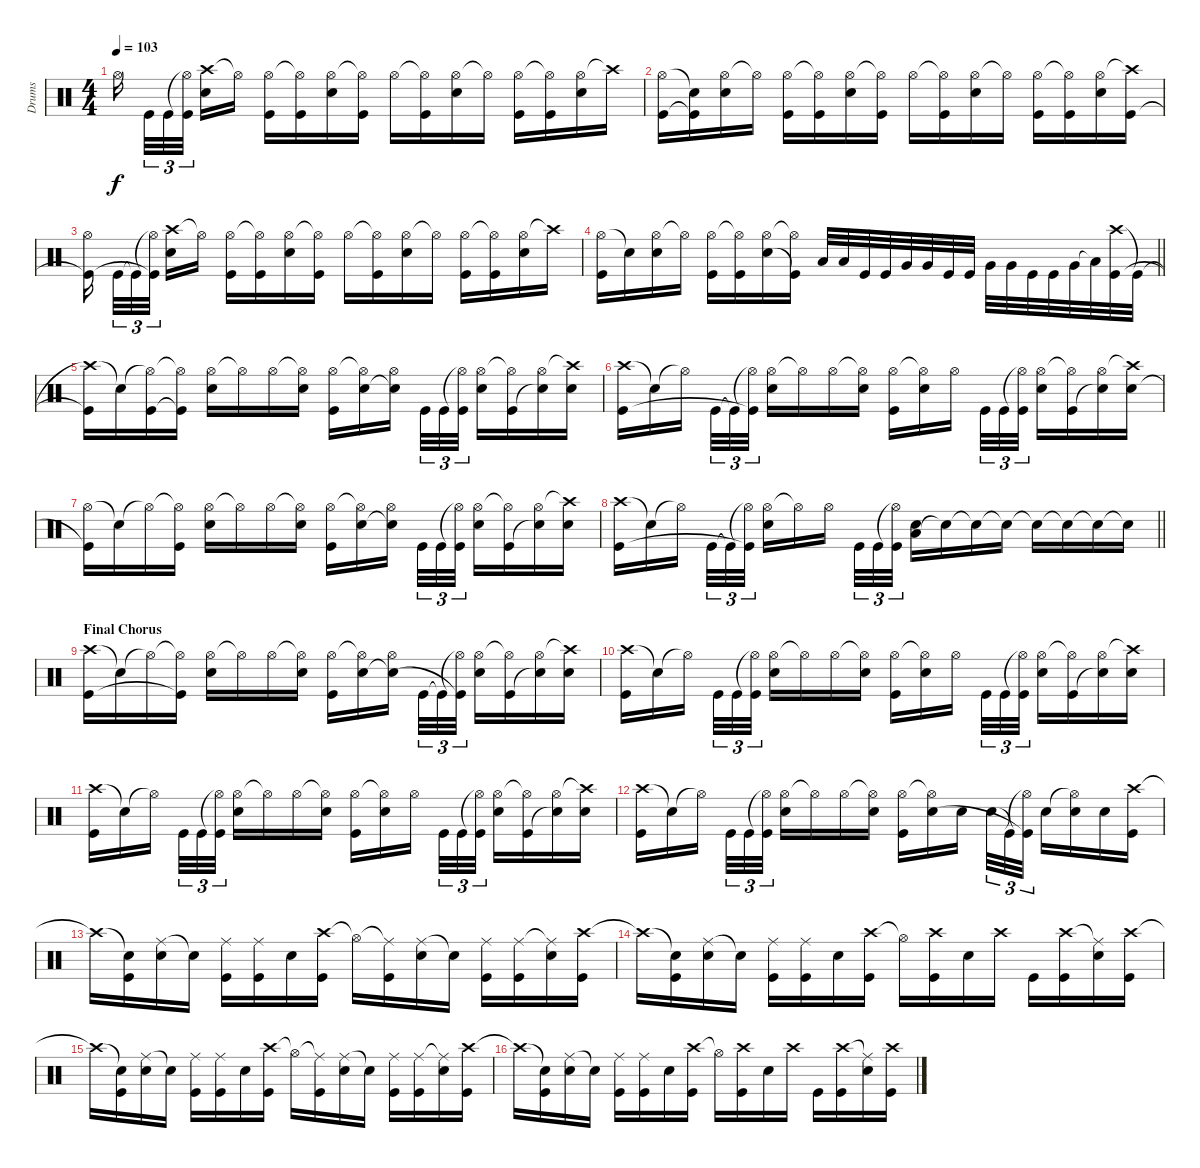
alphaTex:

\track ("Drums" "Drums") {instrument percussion}
\staff {score}
\articulation defaults
\ts (4 4)
\tempo 103
\clef neutral
\ks c "Hi-Hat (open)".16{dy f} "Kick (hit)".32{tu (3 2)} "Kick (hit)".32{tu (3 2)}
("Hi-Hat (open)"{t} "Kick (hit)").32{tu (3 2)} ("Crash high (hit)" "Electric Snare (hit)").16 "Hi-Hat (open)"{t}.16 ("Hi-Hat (open)" "Kick (hit)").16 ("Hi-Hat (open)"{t} "Kick (hit)").16 ("Hi-Hat (open)" "Electric Snare (hit)").16 ("Hi-Hat (open)"{t} "Kick (hit)").16 "Hi-Hat (open)".16 ("Hi-Hat (open)"{t} "Kick (hit)").16 ("Hi-Hat (open)" "Electric Snare (hit)").16 "Hi-Hat (open)"{t}.16 ("Hi-Hat (open)" "Kick (hit)").16 ("Hi-Hat (open)"{t} "Kick (hit)").16 ("Hi-Hat (open)" "Electric Snare (hit)").16 "Crash high (hit)"{t}.16 |
("Hi-Hat (open)" "Kick (hit)").16 ("Snare (hit)"{t} "Kick (hit)"{t}).16 ("Hi-Hat (open)" "Electric Snare (hit)").16 "Hi-Hat (open)"{t}.16 ("Hi-Hat (open)" "Kick (hit)").16 ("Hi-Hat (open)"{t} "Kick (hit)").16 ("Hi-Hat (open)" "Electric Snare (hit)").16 ("Hi-Hat (open)"{t} "Kick (hit)").16 "Hi-Hat (open)".16 ("Hi-Hat (open)"{t} "Kick (hit)").16 ("Hi-Hat (open)" "Electric Snare (hit)").16 "Hi-Hat (open)"{t}.16 ("Hi-Hat (open)" "Kick (hit)").16 ("Hi-Hat (open)"{t} "Kick (hit)").16 ("Hi-Hat (open)" "Electric Snare (hit)").16 ("Crash high (hit)"{t} "Kick (hit)").16 |
("Hi-Hat (open)" "Kick (hit)"{t}).16 "Kick (hit)".32{tu (3 2)} "Kick (hit)"{t}.32{tu (3 2)} ("Hi-Hat (open)"{t} "Kick (hit)"{t}).32{tu (3 2)} ("Crash high (hit)" "Electric Snare (hit)").16 "Hi-Hat (open)"{t}.16 ("Hi-Hat (open)" "Kick (hit)").16 ("Hi-Hat (open)"{t} "Kick (hit)").16 ("Hi-Hat (open)" "Electric Snare (hit)").16 ("Hi-Hat (open)"{t} "Kick (hit)").16 "Hi-Hat (open)".16 ("Hi-Hat (open)"{t} "Kick (hit)").16 ("Hi-Hat (open)" "Electric Snare (hit)").16 "Hi-Hat (open)"{t}.16 ("Hi-Hat (open)" "Kick (hit)").16 ("Hi-Hat (open)"{t} "Kick (hit)").16 ("Hi-Hat (open)" "Electric Snare (hit)").16 "Crash high (hit)"{t}.16 |
\barLineRight lightlight
("Hi-Hat (open)" "Kick (hit)").16 "Snare (hit)"{t}.16 ("Hi-Hat (open)" "Electric Snare (hit)").16 "Hi-Hat (open)"{t}.16 ("Hi-Hat (open)" "Kick (hit)").16 ("Hi-Hat (open)"{t} "Kick (hit)").16 ("Hi-Hat (open)" "Electric Snare (hit)").16 ("Hi-Hat (open)"{t} "Kick (hit)"{t}).16 "Low Tom (hit)".32 "Low Tom (hit)".32 "Kick (hit)".32 "Kick (hit)".32 "Very Low Tom (hit)".32 "Very Low Tom (hit)".32 "Kick (hit)".32 "Kick (hit)".32 "Very Low Tom (hit)".32 "Very Low Tom (hit)".32 "Kick (hit)".32 "Kick (hit)".32 "Very Low Tom (hit)".32 "Low Floor Tom (hit)"{t}.32 ("Crash high (hit)" "Kick (hit)").32 "Kick (hit)"{t}.32 |
("Crash high (hit)"{t} "Kick (hit)"{t}).16 "Snare (hit)"{t}.16 ("Hi-Hat (open)"{t} "Kick (hit)").16 ("Hi-Hat (open)"{t} "Kick (hit)"{t}).16 ("Hi-Hat (open)" "Electric Snare (hit)").16 "Hi-Hat (open)"{t}.16 "Hi-Hat (open)".16 ("Hi-Hat (open)"{t} "Electric Snare (hit)").16 ("Hi-Hat (open)" "Kick (hit)").16 ("Hi-Hat (open)"{t} "Electric Snare (hit)").16 ("Hi-Hat (open)" "Electric Snare (hit)"{t}).16 "Kick (hit)".32{tu (3 2)} "Kick (hit)".32{tu (3 2)} ("Hi-Hat (open)"{t} "Kick (hit)").32{tu (3 2)} ("Hi-Hat (open)" "Electric Snare (hit)").16 ("Hi-Hat (open)"{t} "Kick (hit)").16 ("Hi-Hat (open)" "Electric Snare (hit)"{t}).16 ("Crash high (hit)"{t} "Electric Snare (hit)").16 |
("Crash high (hit)" "Kick (hit)").16 "Snare (hit)"{t}.16 "Hi-Hat (open)"{t}.16 "Kick (hit)".32{tu (3 2)} "Kick (hit)"{t}.32{tu (3 2)} ("Hi-Hat (open)"{t} "Kick (hit)"{t}).32{tu (3 2)} ("Hi-Hat (open)" "Electric Snare (hit)").16 "Hi-Hat (open)"{t}.16 "Hi-Hat (open)".16 ("Hi-Hat (open)"{t} "Electric Snare (hit)").16 ("Hi-Hat (open)" "Kick (hit)").16 ("Hi-Hat (open)"{t} "Electric Snare (hit)").16 "Hi-Hat (open)".16 "Kick (hit)".32{tu (3 2)} "Kick (hit)".32{tu (3 2)} ("Hi-Hat (open)"{t} "Kick (hit)").32{tu (3 2)} ("Hi-Hat (open)" "Electric Snare (hit)").16 ("Hi-Hat (open)"{t} "Kick (hit)").16 ("Hi-Hat (open)" "Electric Snare (hit)"{t}).16 ("Crash high (hit)"{t} "Electric Snare (hit)").16 |
("Hi-Hat (open)" "Kick (hit)"{t}).16 "Snare (hit)"{t}.16 "Hi-Hat (open)"{t}.16 ("Hi-Hat (open)"{t} "Kick (hit)").16 ("Hi-Hat (open)" "Electric Snare (hit)").16 "Hi-Hat (open)"{t}.16 "Hi-Hat (open)".16 ("Hi-Hat (open)"{t} "Electric Snare (hit)").16 ("Hi-Hat (open)" "Kick (hit)").16 ("Hi-Hat (open)"{t} "Electric Snare (hit)").16 ("Hi-Hat (open)" "Electric Snare (hit)"{t}).16 "Kick (hit)".32{tu (3 2)} "Kick (hit)".32{tu (3 2)} ("Hi-Hat (open)"{t} "Kick (hit)").32{tu (3 2)} ("Hi-Hat (open)" "Electric Snare (hit)").16 ("Hi-Hat (open)"{t} "Kick (hit)").16 ("Hi-Hat (open)" "Electric Snare (hit)"{t}).16 ("Crash high (hit)"{t} "Electric Snare (hit)").16 |
\barLineRight lightlight
("Crash high (hit)" "Kick (hit)").16 "Snare (hit)"{t}.16 "Hi-Hat (open)"{t}.16 "Kick (hit)".32{tu (3 2)} "Kick (hit)"{t}.32{tu (3 2)} ("Hi-Hat (open)"{t} "Kick (hit)"{t}).32{tu (3 2)} ("Hi-Hat (open)" "Electric Snare (hit)").16 "Hi-Hat (open)"{t}.16 "Hi-Hat (open)".16 "Kick (hit)".32{tu (3 2)} "Kick (hit)".32{tu (3 2)} ("Hi-Hat (open)"{t} "Kick (hit)").32{tu (3 2)} ("Low Floor Tom (hit)" "Electric Snare (hit)").16 "Snare (hit)"{t}.16 "Snare (hit)"{t}.16 "Snare (hit)"{t}.16 "Snare (hit)"{t}.16 "Snare (hit)"{t}.16 "Snare (hit)"{t}.16 "Snare (hit)"{t}.16 |
\section ("" "Final Chorus")
("Crash high (hit)" "Kick (hit)").16 "Snare (hit)"{t}.16 "Hi-Hat (open)"{t}.16 ("Hi-Hat (open)"{t} "Kick (hit)"{t}).16 ("Hi-Hat (open)" "Electric Snare (hit)").16 "Hi-Hat (open)"{t}.16 "Hi-Hat (open)".16 ("Hi-Hat (open)"{t} "Electric Snare (hit)").16 ("Hi-Hat (open)" "Kick (hit)").16 ("Hi-Hat (open)"{t} "Electric Snare (hit)").16 ("Hi-Hat (open)" "Electric Snare (hit)"{t}).16 "Kick (hit)".32{tu (3 2)} "Kick (hit)"{t}.32{tu (3 2)} ("Hi-Hat (open)"{t} "Kick (hit)"{t}).32{tu (3 2)} ("Hi-Hat (open)" "Electric Snare (hit)").16 ("Hi-Hat (open)"{t} "Kick (hit)").16 ("Hi-Hat (open)" "Electric Snare (hit)"{t}).16 ("Crash high (hit)"{t} "Electric Snare (hit)").16 |
("Crash high (hit)" "Kick (hit)").16 "Snare (hit)"{t}.16 "Hi-Hat (open)"{t}.16 "Kick (hit)".32{tu (3 2)} "Kick (hit)".32{tu (3 2)} ("Hi-Hat (open)"{t} "Kick (hit)").32{tu (3 2)} ("Hi-Hat (open)" "Electric Snare (hit)").16 "Hi-Hat (open)"{t}.16 "Hi-Hat (open)".16 ("Hi-Hat (open)"{t} "Electric Snare (hit)").16 ("Hi-Hat (open)" "Kick (hit)").16 ("Hi-Hat (open)"{t} "Electric Snare (hit)").16 "Hi-Hat (open)".16 "Kick (hit)".32{tu (3 2)} "Kick (hit)".32{tu (3 2)} ("Hi-Hat (open)"{t} "Kick (hit)").32{tu (3 2)} ("Hi-Hat (open)" "Electric Snare (hit)").16 ("Hi-Hat (open)"{t} "Kick (hit)").16 ("Hi-Hat (open)" "Electric Snare (hit)"{t}).16 ("Crash high (hit)"{t} "Electric Snare (hit)").16 |
("Crash high (hit)" "Kick (hit)").16 "Snare (hit)"{t}.16 "Hi-Hat (open)"{t}.16 "Kick (hit)".32{tu (3 2)} "Kick (hit)".32{tu (3 2)} ("Hi-Hat (open)"{t} "Kick (hit)").32{tu (3 2)} ("Hi-Hat (open)" "Electric Snare (hit)").16 "Hi-Hat (open)"{t}.16 "Hi-Hat (open)".16 ("Hi-Hat (open)"{t} "Electric Snare (hit)").16 ("Hi-Hat (open)" "Kick (hit)").16 ("Hi-Hat (open)"{t} "Electric Snare (hit)").16 "Hi-Hat (open)".16 "Kick (hit)".32{tu (3 2)} "Kick (hit)".32{tu (3 2)} ("Hi-Hat (open)"{t} "Kick (hit)").32{tu (3 2)} ("Hi-Hat (open)" "Electric Snare (hit)").16 ("Hi-Hat (open)"{t} "Kick (hit)").16 ("Hi-Hat (open)" "Electric Snare (hit)"{t}).16 ("Crash high (hit)"{t} "Electric Snare (hit)").16 |
("Crash high (hit)" "Kick (hit)").16 "Snare (hit)"{t}.16 "Hi-Hat (open)"{t}.16 "Kick (hit)".32{tu (3 2)} "Kick (hit)".32{tu (3 2)} ("Hi-Hat (open)"{t} "Kick (hit)").32{tu (3 2)} ("Hi-Hat (open)" "Electric Snare (hit)").16 "Hi-Hat (open)"{t}.16 "Hi-Hat (open)".16 ("Hi-Hat (open)"{t} "Electric Snare (hit)").16 ("Hi-Hat (open)" "Kick (hit)").16 ("Hi-Hat (open)"{t} "Electric Snare (hit)").16 "Electric Snare (hit)".16 "Electric Snare (hit)".32{tu (3 2)} "Kick (hit)"{t}.32{tu (3 2)} ("Hi-Hat (open)"{t} "Kick (hit)"{t}).32{tu (3 2)} "Electric Snare (hit)".16 ("Hi-Hat (open)"{t} "Electric Snare (hit)").16 "Electric Snare (hit)".16 ("Crash high (hit)" "Kick (hit)").16 |
"Crash high (hit)"{t}.16 ("Snare (hit)"{t} "Kick (hit)").16 ("Ride (middle)" "Electric Snare (hit)").16 "Snare (hit)"{t}.16 ("Ride (middle)" "Kick (hit)").16 ("Ride (middle)" "Kick (hit)").16 "Electric Snare (hit)".16 ("Crash high (hit)" "Kick (hit)").16 "Hi-Hat (open)"{t}.16 ("Ride (middle)"{t} "Kick (hit)").16 ("Ride (middle)" "Electric Snare (hit)").16 "Snare (hit)"{t}.16 ("Ride (middle)" "Kick (hit)").16 ("Ride (middle)" "Kick (hit)").16 ("Ride (middle)"{t} "Electric Snare (hit)").16 ("Crash high (hit)" "Kick (hit)").16 |
"Crash high (hit)"{t}.16 ("Snare (hit)"{t} "Kick (hit)").16 ("Ride (middle)" "Electric Snare (hit)").16 "Snare (hit)"{t}.16 ("Ride (middle)" "Kick (hit)").16 ("Ride (middle)" "Kick (hit)").16 "Electric Snare (hit)".16 ("Crash high (hit)" "Kick (hit)").16 "Hi-Hat (open)"{t}.16 ("Crash high (hit)" "Kick (hit)").16 "Electric Snare (hit)".16 "Crash high (hit)".16 "Kick (hit)".16 ("Crash high (hit)" "Kick (hit)").16 ("Ride (middle)"{t} "Electric Snare (hit)").16 ("Crash high (hit)" "Kick (hit)").16 |
"Crash high (hit)"{t}.16 ("Snare (hit)"{t} "Kick (hit)").16 ("Ride (middle)" "Electric Snare (hit)").16 "Snare (hit)"{t}.16 ("Ride (middle)" "Kick (hit)").16 ("Ride (middle)" "Kick (hit)").16 "Electric Snare (hit)".16 ("Crash high (hit)" "Kick (hit)").16 "Hi-Hat (open)"{t}.16 ("Ride (middle)"{t} "Kick (hit)").16 ("Ride (middle)" "Electric Snare (hit)").16 "Snare (hit)"{t}.16 ("Ride (middle)" "Kick (hit)").16 ("Ride (middle)" "Kick (hit)").16 ("Ride (middle)"{t} "Electric Snare (hit)").16 ("Crash high (hit)" "Kick (hit)").16 |
"Crash high (hit)"{t}.16 ("Snare (hit)"{t} "Kick (hit)").16 ("Ride (middle)" "Electric Snare (hit)").16 "Snare (hit)"{t}.16 ("Ride (middle)" "Kick (hit)").16 ("Ride (middle)" "Kick (hit)").16 "Electric Snare (hit)".16 ("Crash high (hit)" "Kick (hit)").16 "Hi-Hat (open)"{t}.16 ("Crash high (hit)" "Kick (hit)").16 "Electric Snare (hit)".16 "Crash high (hit)".16 "Kick (hit)".16 ("Crash high (hit)" "Kick (hit)").16 ("Ride (middle)"{t} "Electric Snare (hit)").16 ("Crash high (hit)" "Kick (hit)").16
